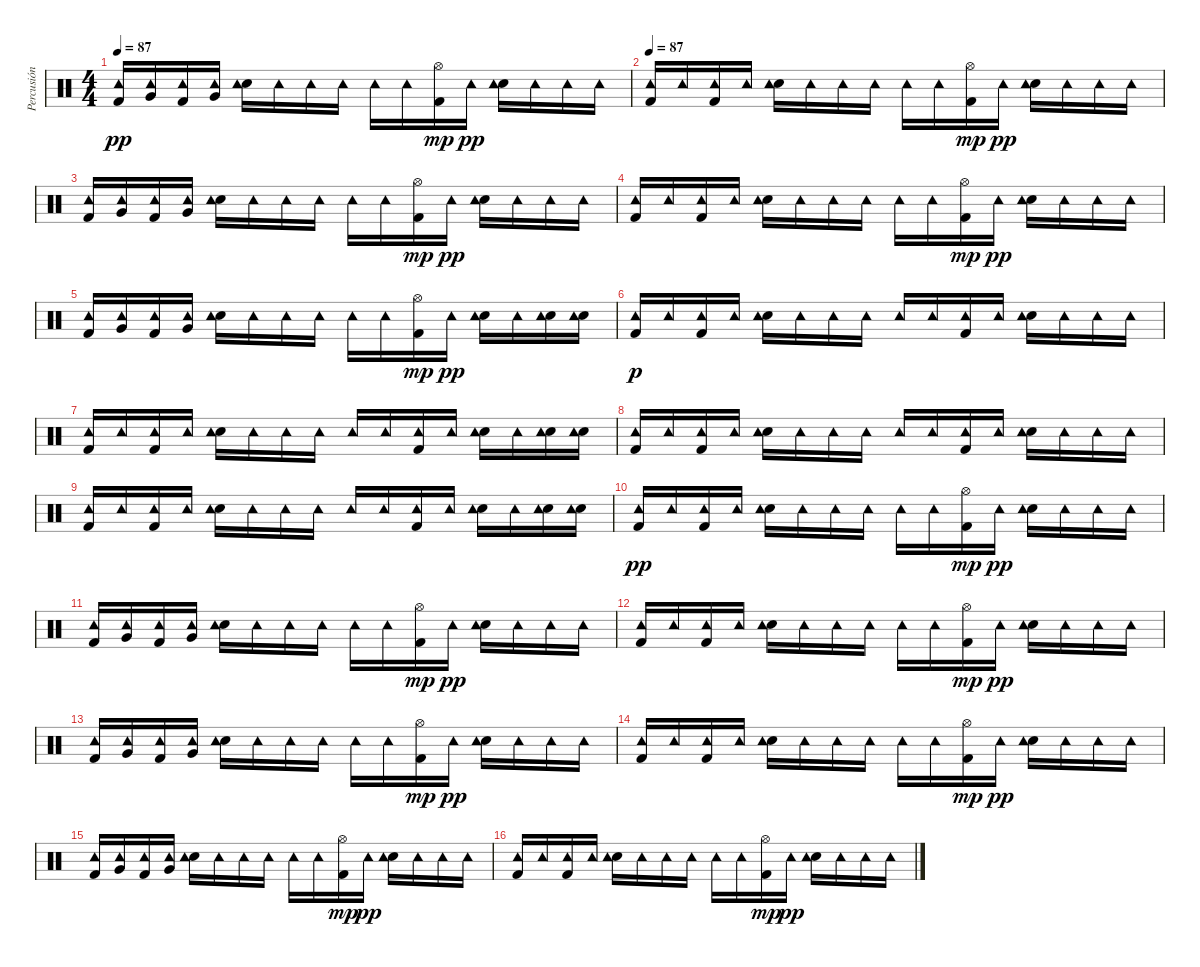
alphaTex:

\track ("Percusión" "Percusión") {instrument percussion}
\staff {score}
\articulation defaults
\ts (4 4)
\tempo 87
\clef neutral
\ks c
("Kick (hit) 2" "Tambourine (hit)").16{dy pp} ("Very Low Tom (hit)" "Tambourine (hit)").16 ("Kick (hit) 2" "Tambourine (hit)").16 ("Very Low Tom (hit)" "Tambourine (hit)").16 ("Electric Snare (hit)" "Tambourine (hit)").16 "Tambourine (hit)".16 "Tambourine (hit)".16 "Tambourine (hit)".16 "Tambourine (hit)".16 "Tambourine (hit)".16 ("Kick (hit) 2" "Hi-Hat (open)").16{dy mp} "Tambourine (hit)".16{dy pp} ("Electric Snare (hit)" "Tambourine (hit)").16 "Tambourine (hit)".16 "Tambourine (hit)".16 "Tambourine (hit)".16 |
\tempo 87
("Kick (hit) 2" "Tambourine (hit)").16 "Tambourine (hit)".16 ("Kick (hit) 2" "Tambourine (hit)").16 "Tambourine (hit)".16 ("Electric Snare (hit)" "Tambourine (hit)").16 "Tambourine (hit)".16 "Tambourine (hit)".16 "Tambourine (hit)".16 "Tambourine (hit)".16 "Tambourine (hit)".16 ("Kick (hit) 2" "Hi-Hat (open)").16{dy mp} "Tambourine (hit)".16{dy pp} ("Electric Snare (hit)" "Tambourine (hit)").16 "Tambourine (hit)".16 "Tambourine (hit)".16 "Tambourine (hit)".16 |
("Kick (hit) 2" "Tambourine (hit)").16 ("Very Low Tom (hit)" "Tambourine (hit)").16 ("Kick (hit) 2" "Tambourine (hit)").16 ("Very Low Tom (hit)" "Tambourine (hit)").16 ("Electric Snare (hit)" "Tambourine (hit)").16 "Tambourine (hit)".16 "Tambourine (hit)".16 "Tambourine (hit)".16 "Tambourine (hit)".16 "Tambourine (hit)".16 ("Kick (hit) 2" "Hi-Hat (open)").16{dy mp} "Tambourine (hit)".16{dy pp} ("Electric Snare (hit)" "Tambourine (hit)").16 "Tambourine (hit)".16 "Tambourine (hit)".16 "Tambourine (hit)".16 |
("Kick (hit) 2" "Tambourine (hit)").16 "Tambourine (hit)".16 ("Kick (hit) 2" "Tambourine (hit)").16 "Tambourine (hit)".16 ("Electric Snare (hit)" "Tambourine (hit)").16 "Tambourine (hit)".16 "Tambourine (hit)".16 "Tambourine (hit)".16 "Tambourine (hit)".16 "Tambourine (hit)".16 ("Kick (hit) 2" "Hi-Hat (open)").16{dy mp} "Tambourine (hit)".16{dy pp} ("Electric Snare (hit)" "Tambourine (hit)").16 "Tambourine (hit)".16 "Tambourine (hit)".16 "Tambourine (hit)".16 |
("Kick (hit) 2" "Tambourine (hit)").16 ("Very Low Tom (hit)" "Tambourine (hit)").16 ("Kick (hit) 2" "Tambourine (hit)").16 ("Very Low Tom (hit)" "Tambourine (hit)").16 ("Electric Snare (hit)" "Tambourine (hit)").16 "Tambourine (hit)".16 "Tambourine (hit)".16 "Tambourine (hit)".16 "Tambourine (hit)".16 "Tambourine (hit)".16 ("Kick (hit) 2" "Hi-Hat (open)").16{dy mp} "Tambourine (hit)".16{dy pp} ("Electric Snare (hit)" "Tambourine (hit)").16 "Tambourine (hit)".16 ("Snare (hit) 2" "Tambourine (hit)").16 ("Snare (hit) 2" "Tambourine (hit)").16 |
("Kick (hit) 2" "Tambourine (hit)").16{dy p volume 13} "Tambourine (hit)".16 ("Kick (hit) 2" "Tambourine (hit)").16 "Tambourine (hit)".16 ("Snare (hit) 2" "Tambourine (hit)").16 "Tambourine (hit)".16 "Tambourine (hit)".16 "Tambourine (hit)".16 "Tambourine (hit)".16 "Tambourine (hit)".16 ("Kick (hit) 2" "Tambourine (hit)").16 "Tambourine (hit)".16 ("Snare (hit) 2" "Tambourine (hit)").16 "Tambourine (hit)".16 "Tambourine (hit)".16 "Tambourine (hit)".16 |
("Kick (hit) 2" "Tambourine (hit)").16 "Tambourine (hit)".16 ("Kick (hit) 2" "Tambourine (hit)").16 "Tambourine (hit)".16 ("Snare (hit) 2" "Tambourine (hit)").16 "Tambourine (hit)".16 "Tambourine (hit)".16 "Tambourine (hit)".16 "Tambourine (hit)".16 "Tambourine (hit)".16 ("Kick (hit) 2" "Tambourine (hit)").16 "Tambourine (hit)".16 ("Snare (hit) 2" "Tambourine (hit)").16 "Tambourine (hit)".16 ("Snare (hit) 2" "Tambourine (hit)").16 ("Snare (hit) 2" "Tambourine (hit)").16 |
("Kick (hit) 2" "Tambourine (hit)").16 "Tambourine (hit)".16 ("Kick (hit) 2" "Tambourine (hit)").16 "Tambourine (hit)".16 ("Snare (hit) 2" "Tambourine (hit)").16 "Tambourine (hit)".16 "Tambourine (hit)".16 "Tambourine (hit)".16 "Tambourine (hit)".16 "Tambourine (hit)".16 ("Kick (hit) 2" "Tambourine (hit)").16 "Tambourine (hit)".16 ("Snare (hit) 2" "Tambourine (hit)").16 "Tambourine (hit)".16 "Tambourine (hit)".16 "Tambourine (hit)".16 |
("Kick (hit) 2" "Tambourine (hit)").16 "Tambourine (hit)".16 ("Kick (hit) 2" "Tambourine (hit)").16 "Tambourine (hit)".16 ("Snare (hit) 2" "Tambourine (hit)").16 "Tambourine (hit)".16 "Tambourine (hit)".16 "Tambourine (hit)".16 "Tambourine (hit)".16 "Tambourine (hit)".16 ("Kick (hit) 2" "Tambourine (hit)").16 "Tambourine (hit)".16 ("Snare (hit) 2" "Tambourine (hit)").16 "Tambourine (hit)".16 ("Snare (hit) 2" "Tambourine (hit)").16 ("Snare (hit) 2" "Tambourine (hit)").16 |
("Kick (hit) 2" "Tambourine (hit)").16{dy pp volume 9} "Tambourine (hit)".16 ("Kick (hit) 2" "Tambourine (hit)").16 "Tambourine (hit)".16 ("Electric Snare (hit)" "Tambourine (hit)").16 "Tambourine (hit)".16 "Tambourine (hit)".16 "Tambourine (hit)".16 "Tambourine (hit)".16 "Tambourine (hit)".16 ("Kick (hit) 2" "Hi-Hat (open)").16{dy mp} "Tambourine (hit)".16{dy pp} ("Electric Snare (hit)" "Tambourine (hit)").16 "Tambourine (hit)".16 "Tambourine (hit)".16 "Tambourine (hit)".16 |
("Kick (hit) 2" "Tambourine (hit)").16 ("Very Low Tom (hit)" "Tambourine (hit)").16 ("Kick (hit) 2" "Tambourine (hit)").16 ("Very Low Tom (hit)" "Tambourine (hit)").16 ("Electric Snare (hit)" "Tambourine (hit)").16 "Tambourine (hit)".16 "Tambourine (hit)".16 "Tambourine (hit)".16 "Tambourine (hit)".16 "Tambourine (hit)".16 ("Kick (hit) 2" "Hi-Hat (open)").16{dy mp} "Tambourine (hit)".16{dy pp} ("Electric Snare (hit)" "Tambourine (hit)").16 "Tambourine (hit)".16 "Tambourine (hit)".16 "Tambourine (hit)".16 |
("Kick (hit) 2" "Tambourine (hit)").16 "Tambourine (hit)".16 ("Kick (hit) 2" "Tambourine (hit)").16 "Tambourine (hit)".16 ("Electric Snare (hit)" "Tambourine (hit)").16 "Tambourine (hit)".16 "Tambourine (hit)".16 "Tambourine (hit)".16 "Tambourine (hit)".16 "Tambourine (hit)".16 ("Kick (hit) 2" "Hi-Hat (open)").16{dy mp} "Tambourine (hit)".16{dy pp} ("Electric Snare (hit)" "Tambourine (hit)").16 "Tambourine (hit)".16 "Tambourine (hit)".16 "Tambourine (hit)".16 |
("Kick (hit) 2" "Tambourine (hit)").16 ("Very Low Tom (hit)" "Tambourine (hit)").16 ("Kick (hit) 2" "Tambourine (hit)").16 ("Very Low Tom (hit)" "Tambourine (hit)").16 ("Electric Snare (hit)" "Tambourine (hit)").16 "Tambourine (hit)".16 "Tambourine (hit)".16 "Tambourine (hit)".16 "Tambourine (hit)".16 "Tambourine (hit)".16 ("Kick (hit) 2" "Hi-Hat (open)").16{dy mp} "Tambourine (hit)".16{dy pp} ("Electric Snare (hit)" "Tambourine (hit)").16 "Tambourine (hit)".16 "Tambourine (hit)".16 "Tambourine (hit)".16 |
("Kick (hit) 2" "Tambourine (hit)").16 "Tambourine (hit)".16 ("Kick (hit) 2" "Tambourine (hit)").16 "Tambourine (hit)".16 ("Electric Snare (hit)" "Tambourine (hit)").16 "Tambourine (hit)".16 "Tambourine (hit)".16 "Tambourine (hit)".16 "Tambourine (hit)".16 "Tambourine (hit)".16 ("Kick (hit) 2" "Hi-Hat (open)").16{dy mp} "Tambourine (hit)".16{dy pp} ("Electric Snare (hit)" "Tambourine (hit)").16 "Tambourine (hit)".16 "Tambourine (hit)".16 "Tambourine (hit)".16 |
("Kick (hit) 2" "Tambourine (hit)").16 ("Very Low Tom (hit)" "Tambourine (hit)").16 ("Kick (hit) 2" "Tambourine (hit)").16 ("Very Low Tom (hit)" "Tambourine (hit)").16 ("Electric Snare (hit)" "Tambourine (hit)").16 "Tambourine (hit)".16 "Tambourine (hit)".16 "Tambourine (hit)".16 "Tambourine (hit)".16 "Tambourine (hit)".16 ("Kick (hit) 2" "Hi-Hat (open)").16{dy mp} "Tambourine (hit)".16{dy pp} ("Electric Snare (hit)" "Tambourine (hit)").16 "Tambourine (hit)".16 "Tambourine (hit)".16 "Tambourine (hit)".16 |
("Kick (hit) 2" "Tambourine (hit)").16 "Tambourine (hit)".16 ("Kick (hit) 2" "Tambourine (hit)").16 "Tambourine (hit)".16 ("Electric Snare (hit)" "Tambourine (hit)").16 "Tambourine (hit)".16 "Tambourine (hit)".16 "Tambourine (hit)".16 "Tambourine (hit)".16 "Tambourine (hit)".16 ("Kick (hit) 2" "Hi-Hat (open)").16{dy mp} "Tambourine (hit)".16{dy pp} ("Electric Snare (hit)" "Tambourine (hit)").16 "Tambourine (hit)".16 "Tambourine (hit)".16 "Tambourine (hit)".16
